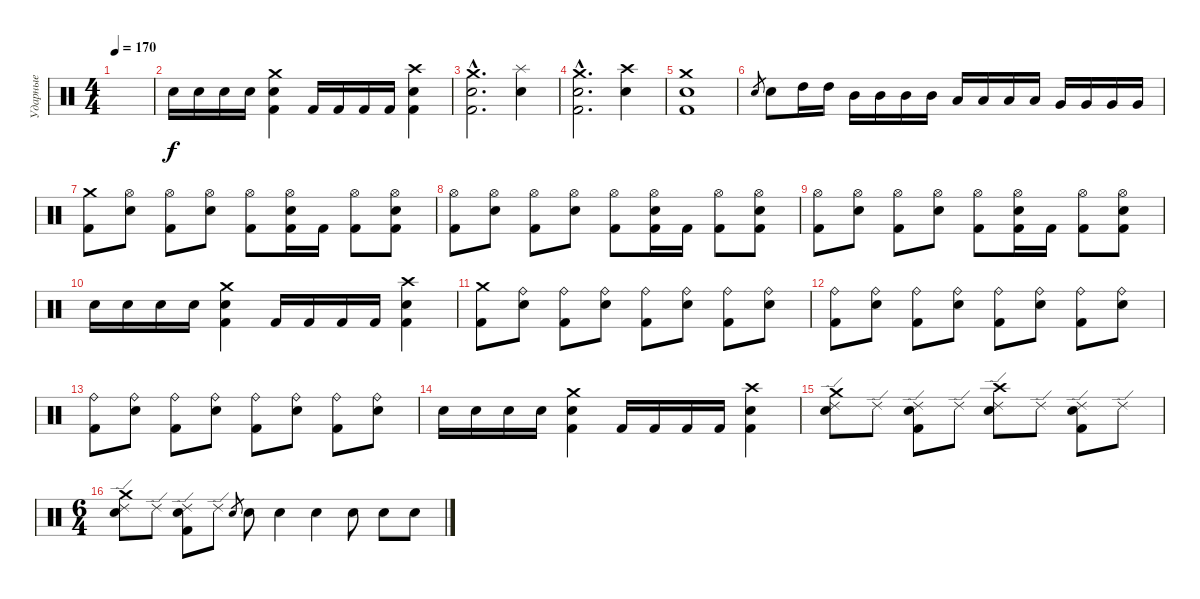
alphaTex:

\track ("Ударные" "Ударные") {instrument percussion}
\staff {score}
\articulation defaults
\ts (4 4)
\tempo 170
\clef neutral
\ks c
|
"Electric Snare (hit)".16 "Electric Snare (hit)".16 "Electric Snare (hit)".16 "Electric Snare (hit)".16 ("Electric Snare (hit)" "Kick (hit) 2" "Crash medium (hit)").4 "Kick (hit) 2".16 "Kick (hit) 2".16 "Kick (hit) 2".16 "Kick (hit) 2".16 ("Electric Snare (hit)" "Kick (hit) 2" "Crash high (hit)").4 |
("Electric Snare (hit)"{hac} "Kick (hit) 2"{hac} "Crash medium (hit)"{hac}).2{d} ("Electric Snare (hit)" "Splash (hit)").4 |
("Electric Snare (hit)"{hac} "Kick (hit) 2"{hac} "Crash medium (hit)"{hac}).2{d} ("Electric Snare (hit)" "Crash high (hit)").4 |
("Electric Snare (hit)" "Kick (hit) 2" "Crash medium (hit)").1 |
"Electric Snare (hit)".8{gr} "Electric Snare (hit)".8 "High Tom (hit)".16 "High Tom (hit)".16 "Mid Tom (hit)".16 "Mid Tom (hit)".16 "Mid Tom (hit)".16 "Mid Tom (hit)".16 "Low Tom (hit)".16 "Low Tom (hit)".16 "Low Tom (hit)".16 "Low Tom (hit)".16 "Very Low Tom (hit)".16 "Very Low Tom (hit)".16 "Very Low Tom (hit)".16 "Very Low Tom (hit)".16 |
("Crash medium (hit)" "Kick (hit) 2").8 ("Hi-Hat (open)" "Electric Snare (hit)").8 ("Hi-Hat (open)" "Kick (hit) 2").8 ("Hi-Hat (open)" "Electric Snare (hit)").8 ("Hi-Hat (open)" "Kick (hit) 2").8 ("Hi-Hat (open)" "Kick (hit) 2" "Electric Snare (hit)").16 "Kick (hit) 2".16 ("Hi-Hat (open)" "Kick (hit) 2").8 ("Hi-Hat (open)" "Kick (hit) 2" "Electric Snare (hit)").8 |
("Hi-Hat (open)" "Kick (hit) 2").8 ("Hi-Hat (open)" "Electric Snare (hit)").8 ("Hi-Hat (open)" "Kick (hit) 2").8 ("Hi-Hat (open)" "Electric Snare (hit)").8 ("Hi-Hat (open)" "Kick (hit) 2").8 ("Hi-Hat (open)" "Kick (hit) 2" "Electric Snare (hit)").16 "Kick (hit) 2".16 ("Hi-Hat (open)" "Kick (hit) 2").8 ("Hi-Hat (open)" "Kick (hit) 2" "Electric Snare (hit)").8 |
("Hi-Hat (open)" "Kick (hit) 2").8 ("Hi-Hat (open)" "Electric Snare (hit)").8 ("Hi-Hat (open)" "Kick (hit) 2").8 ("Hi-Hat (open)" "Electric Snare (hit)").8 ("Hi-Hat (open)" "Kick (hit) 2").8 ("Hi-Hat (open)" "Kick (hit) 2" "Electric Snare (hit)").16 "Kick (hit) 2".16 ("Hi-Hat (open)" "Kick (hit) 2").8 ("Hi-Hat (open)" "Kick (hit) 2" "Electric Snare (hit)").8 |
"Electric Snare (hit)".16 "Electric Snare (hit)".16 "Electric Snare (hit)".16 "Electric Snare (hit)".16 ("Electric Snare (hit)" "Kick (hit) 2" "Crash medium (hit)").4 "Kick (hit) 2".16 "Kick (hit) 2".16 "Kick (hit) 2".16 "Kick (hit) 2".16 ("Electric Snare (hit)" "Kick (hit) 2" "Crash high (hit)").4 |
("Crash medium (hit)" "Kick (hit) 2").8 ("Ride (bell)" "Electric Snare (hit)").8 ("Ride (bell)" "Kick (hit) 2").8 ("Ride (bell)" "Electric Snare (hit)").8 ("Ride (bell)" "Kick (hit) 2").8 ("Ride (bell)" "Electric Snare (hit)").8 ("Ride (bell)" "Kick (hit) 2").8 ("Ride (bell)" "Electric Snare (hit)").8 |
("Ride (bell)" "Kick (hit) 2").8 ("Ride (bell)" "Electric Snare (hit)").8 ("Ride (bell)" "Kick (hit) 2").8 ("Ride (bell)" "Electric Snare (hit)").8 ("Ride (bell)" "Kick (hit) 2").8 ("Ride (bell)" "Electric Snare (hit)").8 ("Ride (bell)" "Kick (hit) 2").8 ("Ride (bell)" "Electric Snare (hit)").8 |
("Ride (bell)" "Kick (hit) 2").8 ("Ride (bell)" "Electric Snare (hit)").8 ("Ride (bell)" "Kick (hit) 2").8 ("Ride (bell)" "Electric Snare (hit)").8 ("Ride (bell)" "Kick (hit) 2").8 ("Ride (bell)" "Electric Snare (hit)").8 ("Ride (bell)" "Kick (hit) 2").8 ("Ride (bell)" "Electric Snare (hit)").8 |
"Electric Snare (hit)".16 "Electric Snare (hit)".16 "Electric Snare (hit)".16 "Electric Snare (hit)".16 ("Electric Snare (hit)" "Kick (hit) 2" "Crash medium (hit)").4 "Kick (hit) 2".16 "Kick (hit) 2".16 "Kick (hit) 2".16 "Kick (hit) 2".16 ("Electric Snare (hit)" "Kick (hit) 2" "Crash high (hit)").4 |
("Ride (edge) 2" "Crash medium (hit)" "Electric Snare (hit)").8 "Ride (edge) 2".8 ("Ride (edge) 2" "Kick (hit) 2" "Electric Snare (hit)").8 "Ride (edge) 2".8 ("Ride (edge) 2" "Electric Snare (hit)" "Crash high (hit)").8 "Ride (edge) 2".8 ("Ride (edge) 2" "Kick (hit) 2" "Electric Snare (hit)").8 "Ride (edge) 2".8 |
\ts (6 4)
("Ride (edge) 2" "Electric Snare (hit)" "Crash medium (hit)").8 "Ride (edge) 2".8 ("Ride (edge) 2" "Kick (hit) 2" "Electric Snare (hit)").8 "Ride (edge) 2".8 "Electric Snare (hit)".8{gr} "Electric Snare (hit)".8 "Electric Snare (hit)".4 "Electric Snare (hit)".4 "Electric Snare (hit)".8 "Electric Snare (hit)".8 "Electric Snare (hit)".8
